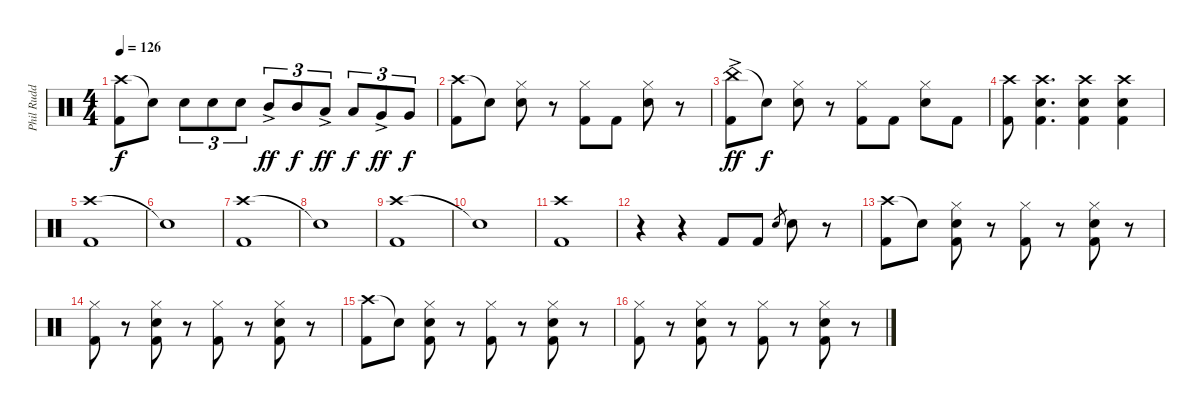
\track ("Phil Rudd" "Phil Rudd") {instrument percussion}
\staff {score}
\articulation defaults
\ts (4 4)
\tempo 126
\clef neutral
\ks c
("Crash high (hit)" "Kick (hit) 2").8{dy f} "Snare (hit)"{t}.8 "Snare (hit) 2".8{tu (3 2)} "Snare (hit) 2".8{tu (3 2)} "Snare (hit) 2".8{tu (3 2)} "Mid Tom (hit)"{ac}.8{tu (3 2) dy ff} "Mid Tom (hit)".8{tu (3 2) dy f} "Low Tom (hit)"{ac}.8{tu (3 2) dy ff} "Low Tom (hit)".8{tu (3 2) dy f} "Very Low Tom (hit)"{ac}.8{tu (3 2) dy ff} "Very Low Tom (hit)".8{tu (3 2) dy f} |
("Crash high (hit)" "Kick (hit) 2").8 "Snare (hit)"{t}.8 ("Hi-Hat (closed)" "Snare (hit) 2").8 r.8 ("Hi-Hat (closed)" "Kick (hit) 2").8 "Kick (hit) 2".8 ("Hi-Hat (closed)" "Snare (hit) 2").8 r.8 |
("China (hit)"{ac} "Kick (hit) 2").8{dy ff} "Snare (hit)"{t}.8{dy f} ("Hi-Hat (closed)" "Snare (hit) 2").8 r.8 ("Hi-Hat (closed)" "Kick (hit) 2").8 "Kick (hit) 2".8 ("Hi-Hat (closed)" "Snare (hit) 2").8 "Kick (hit) 2".8 |
("Crash high (hit)" "Kick (hit) 2").8 ("Crash high (hit)" "Snare (hit) 2" "Kick (hit) 2").4{d} ("Crash high (hit)" "Snare (hit) 2" "Kick (hit) 2").4 ("Crash high (hit)" "Snare (hit) 2" "Kick (hit) 2").4 |
("Crash high (hit)" "Kick (hit) 2").1 |
"Snare (hit)"{t}.1 |
("Crash high (hit)" "Kick (hit) 2").1 |
"Snare (hit)"{t}.1 |
("Crash high (hit)" "Kick (hit) 2").1 |
"Snare (hit)"{t}.1 |
("Crash high (hit)" "Kick (hit) 2").1 |
r.4 r.4 "Kick (hit) 2".8 "Kick (hit) 2".8 "Snare (hit) 2".8{gr} "Snare (hit) 2".8 r.8 |
("Crash high (hit)" "Kick (hit) 2").8 "Snare (hit)"{t}.8 ("Hi-Hat (closed)" "Snare (hit) 2" "Kick (hit) 2").8 r.8 ("Hi-Hat (closed)" "Kick (hit) 2").8 r.8 ("Hi-Hat (closed)" "Snare (hit) 2" "Kick (hit) 2").8 r.8 |
("Hi-Hat (closed)" "Kick (hit) 2").8 r.8 ("Hi-Hat (closed)" "Snare (hit) 2" "Kick (hit) 2").8 r.8 ("Hi-Hat (closed)" "Kick (hit) 2").8 r.8 ("Hi-Hat (closed)" "Snare (hit) 2" "Kick (hit) 2").8 r.8 |
("Crash high (hit)" "Kick (hit) 2").8 "Snare (hit)"{t}.8 ("Hi-Hat (closed)" "Snare (hit) 2" "Kick (hit) 2").8 r.8 ("Hi-Hat (closed)" "Kick (hit) 2").8 r.8 ("Hi-Hat (closed)" "Snare (hit) 2" "Kick (hit) 2").8 r.8 |
("Hi-Hat (closed)" "Kick (hit) 2").8 r.8 ("Hi-Hat (closed)" "Snare (hit) 2" "Kick (hit) 2").8 r.8 ("Hi-Hat (closed)" "Kick (hit) 2").8 r.8 ("Hi-Hat (closed)" "Snare (hit) 2" "Kick (hit) 2").8 r.8
